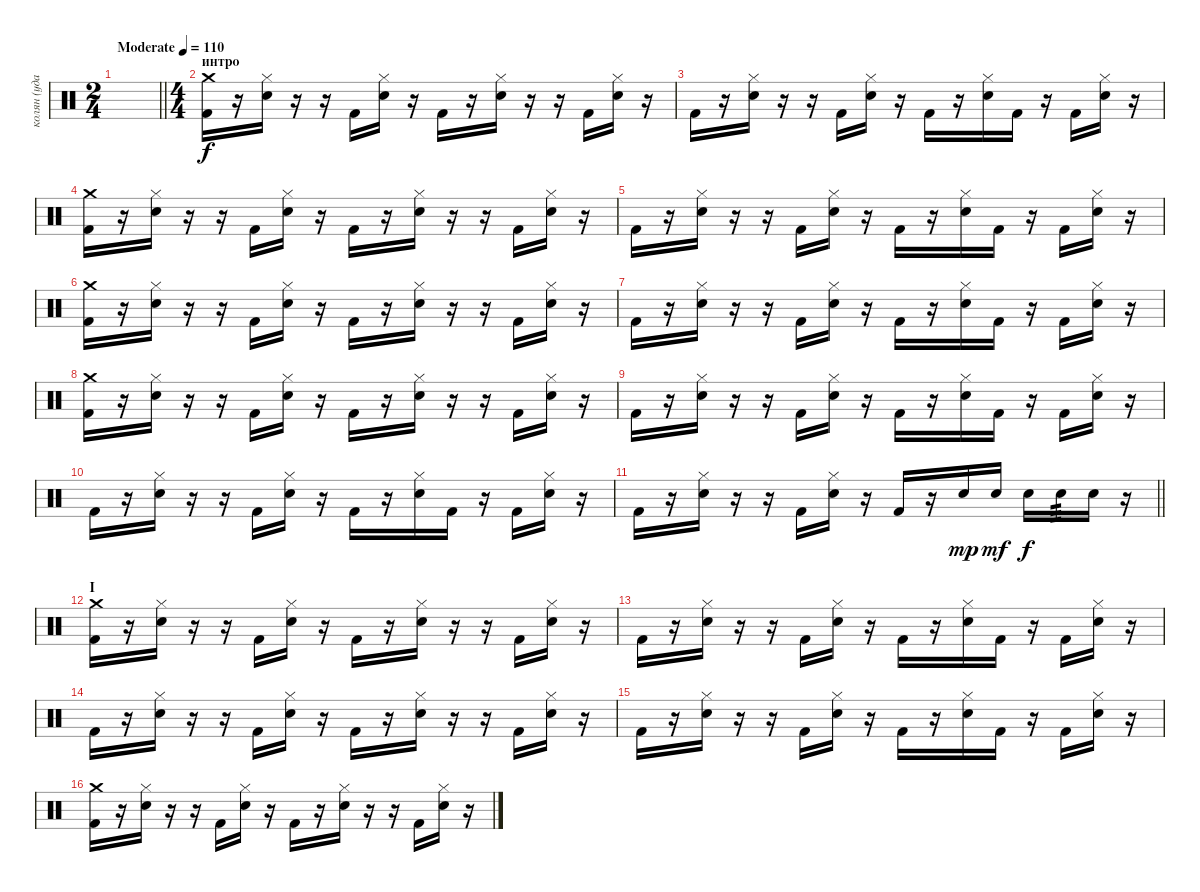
\track ("колян (ударные)" "колян (уда") {instrument percussion}
\staff {score}
\articulation defaults
\ts (2 4)
\tempo (110 "Moderate")
\clef neutral
\barLineRight lightlight
\ks c
|
\ts (4 4)
\section ("" "интро")
("Kick (hit) 2" "Crash medium (hit)").16 r.16 ("Snare (hit) 2" "Hi-Hat (closed)").16 r.16 r.16 "Kick (hit) 2".16 ("Snare (hit) 2" "Hi-Hat (closed)").16 r.16 "Kick (hit) 2".16 r.16 ("Snare (hit) 2" "Hi-Hat (closed)").16 r.16 r.16 "Kick (hit) 2".16 ("Snare (hit) 2" "Hi-Hat (closed)").16 r.16 |
"Kick (hit) 2".16 r.16 ("Snare (hit) 2" "Hi-Hat (closed)").16 r.16 r.16 "Kick (hit) 2".16 ("Snare (hit) 2" "Hi-Hat (closed)").16 r.16 "Kick (hit) 2".16 r.16 ("Snare (hit) 2" "Hi-Hat (closed)").16 "Kick (hit) 2".16 r.16 "Kick (hit) 2".16 ("Snare (hit) 2" "Hi-Hat (closed)").16 r.16 |
("Kick (hit) 2" "Crash medium (hit)").16 r.16 ("Snare (hit) 2" "Hi-Hat (closed)").16 r.16 r.16 "Kick (hit) 2".16 ("Snare (hit) 2" "Hi-Hat (closed)").16 r.16 "Kick (hit) 2".16 r.16 ("Snare (hit) 2" "Hi-Hat (closed)").16 r.16 r.16 "Kick (hit) 2".16 ("Snare (hit) 2" "Hi-Hat (closed)").16 r.16 |
"Kick (hit) 2".16 r.16 ("Snare (hit) 2" "Hi-Hat (closed)").16 r.16 r.16 "Kick (hit) 2".16 ("Snare (hit) 2" "Hi-Hat (closed)").16 r.16 "Kick (hit) 2".16 r.16 ("Snare (hit) 2" "Hi-Hat (closed)").16 "Kick (hit) 2".16 r.16 "Kick (hit) 2".16 ("Snare (hit) 2" "Hi-Hat (closed)").16 r.16 |
("Kick (hit) 2" "Crash medium (hit)").16 r.16 ("Snare (hit) 2" "Hi-Hat (closed)").16 r.16 r.16 "Kick (hit) 2".16 ("Snare (hit) 2" "Hi-Hat (closed)").16 r.16 "Kick (hit) 2".16 r.16 ("Snare (hit) 2" "Hi-Hat (closed)").16 r.16 r.16 "Kick (hit) 2".16 ("Snare (hit) 2" "Hi-Hat (closed)").16 r.16 |
"Kick (hit) 2".16 r.16 ("Snare (hit) 2" "Hi-Hat (closed)").16 r.16 r.16 "Kick (hit) 2".16 ("Snare (hit) 2" "Hi-Hat (closed)").16 r.16 "Kick (hit) 2".16 r.16 ("Snare (hit) 2" "Hi-Hat (closed)").16 "Kick (hit) 2".16 r.16 "Kick (hit) 2".16 ("Snare (hit) 2" "Hi-Hat (closed)").16 r.16 |
("Kick (hit) 2" "Crash medium (hit)").16 r.16 ("Snare (hit) 2" "Hi-Hat (closed)").16 r.16 r.16 "Kick (hit) 2".16 ("Snare (hit) 2" "Hi-Hat (closed)").16 r.16 "Kick (hit) 2".16 r.16 ("Snare (hit) 2" "Hi-Hat (closed)").16 r.16 r.16 "Kick (hit) 2".16 ("Snare (hit) 2" "Hi-Hat (closed)").16 r.16 |
"Kick (hit) 2".16 r.16 ("Snare (hit) 2" "Hi-Hat (closed)").16 r.16 r.16 "Kick (hit) 2".16 ("Snare (hit) 2" "Hi-Hat (closed)").16 r.16 "Kick (hit) 2".16 r.16 ("Snare (hit) 2" "Hi-Hat (closed)").16 "Kick (hit) 2".16 r.16 "Kick (hit) 2".16 ("Snare (hit) 2" "Hi-Hat (closed)").16 r.16 |
"Kick (hit) 2".16 r.16 ("Snare (hit) 2" "Hi-Hat (closed)").16 r.16 r.16 "Kick (hit) 2".16 ("Snare (hit) 2" "Hi-Hat (closed)").16 r.16 "Kick (hit) 2".16 r.16 ("Snare (hit) 2" "Hi-Hat (closed)").16 "Kick (hit) 2".16 r.16 "Kick (hit) 2".16 ("Snare (hit) 2" "Hi-Hat (closed)").16 r.16 |
\barLineRight lightlight "Kick (hit) 2".16
r.16 ("Snare (hit) 2" "Hi-Hat (closed)").16 r.16 r.16 "Kick (hit) 2".16 ("Snare (hit) 2" "Hi-Hat (closed)").16 r.16 "Kick (hit) 2".16 r.16 "Snare (hit) 2".16{dy mp} "Snare (hit) 2".16{dy mf} "Snare (hit) 2".16{dy f} "Snare (hit) 2".16{tp 3} "Snare (hit) 2".16 r.16 |
\section ("" "I")
("Kick (hit) 2" "Crash medium (hit)").16 r.16 ("Snare (hit) 2" "Hi-Hat (closed)").16 r.16 r.16 "Kick (hit) 2".16 ("Snare (hit) 2" "Hi-Hat (closed)").16 r.16 "Kick (hit) 2".16 r.16 ("Snare (hit) 2" "Hi-Hat (closed)").16 r.16 r.16 "Kick (hit) 2".16 ("Snare (hit) 2" "Hi-Hat (closed)").16 r.16 |
"Kick (hit) 2".16 r.16 ("Snare (hit) 2" "Hi-Hat (closed)").16 r.16 r.16 "Kick (hit) 2".16 ("Snare (hit) 2" "Hi-Hat (closed)").16 r.16 "Kick (hit) 2".16 r.16 ("Snare (hit) 2" "Hi-Hat (closed)").16 "Kick (hit) 2".16 r.16 "Kick (hit) 2".16 ("Snare (hit) 2" "Hi-Hat (closed)").16 r.16 |
"Kick (hit) 2".16 r.16 ("Snare (hit) 2" "Hi-Hat (closed)").16 r.16 r.16 "Kick (hit) 2".16 ("Snare (hit) 2" "Hi-Hat (closed)").16 r.16 "Kick (hit) 2".16 r.16 ("Snare (hit) 2" "Hi-Hat (closed)").16 r.16 r.16 "Kick (hit) 2".16 ("Snare (hit) 2" "Hi-Hat (closed)").16 r.16 |
"Kick (hit) 2".16 r.16 ("Snare (hit) 2" "Hi-Hat (closed)").16 r.16 r.16 "Kick (hit) 2".16 ("Snare (hit) 2" "Hi-Hat (closed)").16 r.16 "Kick (hit) 2".16 r.16 ("Snare (hit) 2" "Hi-Hat (closed)").16 "Kick (hit) 2".16 r.16 "Kick (hit) 2".16 ("Snare (hit) 2" "Hi-Hat (closed)").16 r.16 |
("Kick (hit) 2" "Crash medium (hit)").16 r.16 ("Snare (hit) 2" "Hi-Hat (closed)").16 r.16 r.16 "Kick (hit) 2".16 ("Snare (hit) 2" "Hi-Hat (closed)").16 r.16 "Kick (hit) 2".16 r.16 ("Snare (hit) 2" "Hi-Hat (closed)").16 r.16 r.16 "Kick (hit) 2".16 ("Snare (hit) 2" "Hi-Hat (closed)").16 r.16
